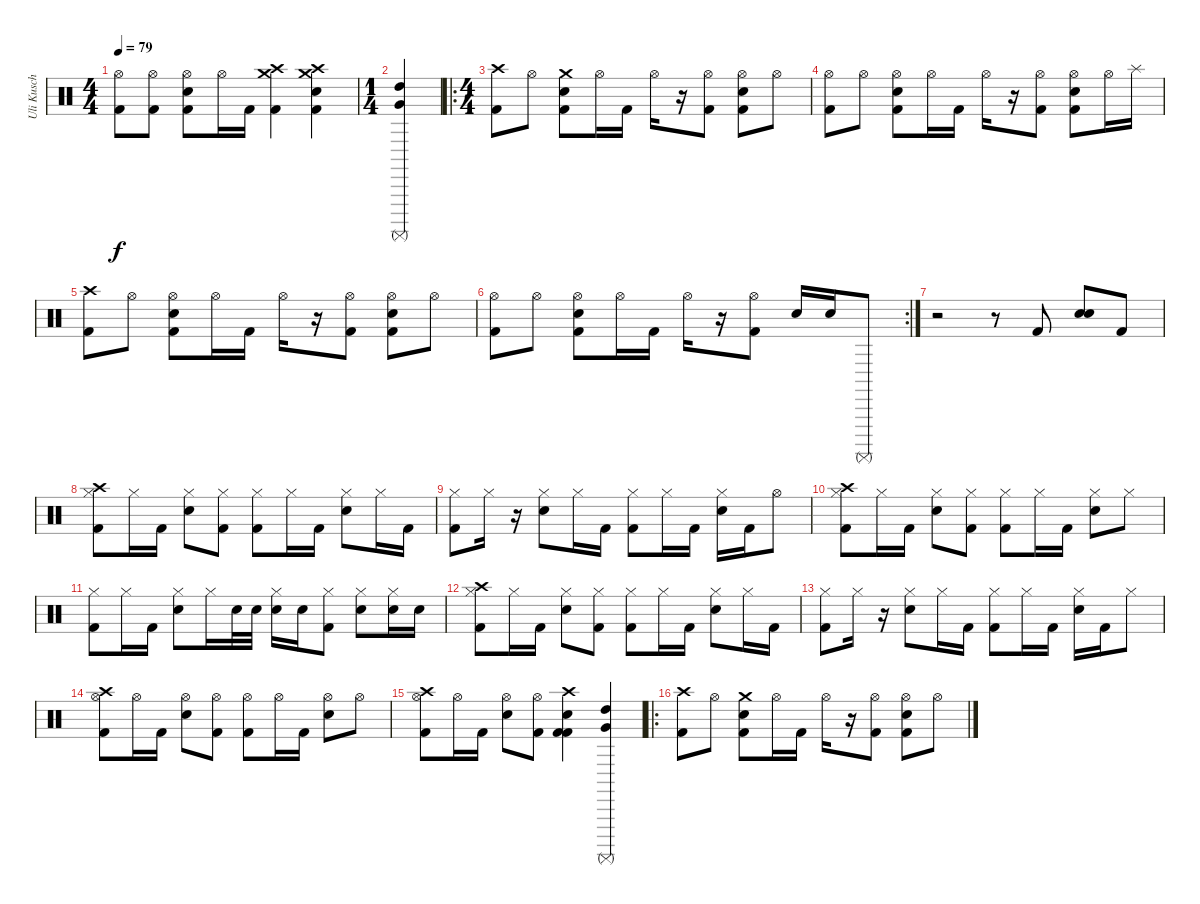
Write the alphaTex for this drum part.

\track ("Uli Kusch" "Uli Kusch") {instrument percussion}
\staff {score}
\articulation defaults
\ts (4 4)
\tempo 79
\clef neutral
\ks c
("Kick (hit) 2" "Hi-Hat (open)").8{dy f} ("Hi-Hat (open)" "Kick (hit) 2").8 ("Snare (hit) 2" "Kick (hit) 2" "Hi-Hat (open)").8 "Hi-Hat (open)".16 "Kick (hit) 2".16 ("Crash high (hit)" "Kick (hit) 2" "Crash medium (hit)").4 ("Crash medium (hit)" "Crash high (hit)" "Kick (hit) 2" "Snare (hit) 2").4 |
\ts (1 4)
("Surdo (mute)" "Very Low Tom (hit)" "High Tom (hit)").4 |
\ro
\ts (4 4)
("Kick (hit) 2" "Crash high (hit)").8 "Hi-Hat (open)".8 ("Snare (hit) 2" "Kick (hit) 2" "Crash medium (hit)").8 "Hi-Hat (open)".16 "Kick (hit) 2".16 "Hi-Hat (open)".16 r.16 ("Kick (hit) 2" "Hi-Hat (open)").8 ("Kick (hit) 2" "Hi-Hat (open)" "Snare (hit) 2").8 "Hi-Hat (open)".8 |
("Kick (hit) 2" "Hi-Hat (open)").8 "Hi-Hat (open)".8 ("Snare (hit) 2" "Kick (hit) 2" "Hi-Hat (open)").8 "Hi-Hat (open)".16 "Kick (hit) 2".16 "Hi-Hat (open)".16 r.16 ("Kick (hit) 2" "Hi-Hat (open)").8 ("Kick (hit) 2" "Snare (hit) 2" "Hi-Hat (open)").8 "Hi-Hat (open)".16 "Splash (hit)".16 |
("Kick (hit) 2" "Crash high (hit)").8 "Hi-Hat (open)".8 ("Snare (hit) 2" "Kick (hit) 2" "Hi-Hat (open)").8 "Hi-Hat (open)".16 "Kick (hit) 2".16 "Hi-Hat (open)".16 r.16 ("Kick (hit) 2" "Hi-Hat (open)").8 ("Kick (hit) 2" "Snare (hit) 2" "Hi-Hat (open)").8 "Hi-Hat (open)".8 |
\rc 2
("Kick (hit) 2" "Hi-Hat (open)").8 "Hi-Hat (open)".8 ("Snare (hit) 2" "Kick (hit) 2" "Hi-Hat (open)").8 "Hi-Hat (open)".16 "Kick (hit) 2".16 "Hi-Hat (open)".16 r.16 ("Kick (hit) 2" "Hi-Hat (open)").8 "Snare (hit) 2".16 "Snare (hit) 2".16 "Surdo (mute)".8 |
r.2 r.8 "Kick (hit) 2".8 ("Snare (hit) 2" "Snare (hit) 2").8{bd 60} "Kick (hit) 2".8 |
("Crash high (hit)" "Hi-Hat (closed)" "Kick (hit) 2").8 "Hi-Hat (closed)".16 "Kick (hit) 2".16 ("Snare (hit) 2" "Hi-Hat (closed)").8 ("Kick (hit) 2" "Hi-Hat (closed)").8 ("Hi-Hat (closed)" "Kick (hit) 2").8 "Hi-Hat (closed)".16 "Kick (hit) 2".16 ("Snare (hit) 2" "Hi-Hat (closed)").8 "Hi-Hat (closed)".16 "Kick (hit) 2".16 |
("Hi-Hat (closed)" "Kick (hit) 2").8 "Hi-Hat (closed)".16 r.16 ("Snare (hit) 2" "Hi-Hat (closed)").8 "Hi-Hat (closed)".16 "Kick (hit) 2".16 ("Hi-Hat (closed)" "Kick (hit) 2").8 "Hi-Hat (closed)".16 "Kick (hit) 2".16 ("Snare (hit) 2" "Hi-Hat (closed)").16 "Kick (hit) 2".16 "Hi-Hat (open)".8 |
("Crash high (hit)" "Hi-Hat (closed)" "Kick (hit) 2").8 "Hi-Hat (closed)".16 "Kick (hit) 2".16 ("Snare (hit) 2" "Hi-Hat (closed)").8 ("Kick (hit) 2" "Hi-Hat (closed)").8 ("Hi-Hat (closed)" "Kick (hit) 2").8 "Hi-Hat (closed)".16 "Kick (hit) 2".16 ("Snare (hit) 2" "Hi-Hat (closed)").8 "Hi-Hat (closed)".8 |
("Hi-Hat (closed)" "Kick (hit) 2").8 "Hi-Hat (closed)".16 "Kick (hit) 2".16 ("Snare (hit) 2" "Hi-Hat (closed)").8 "Hi-Hat (closed)".16 "Snare (hit) 2".32 "Snare (hit) 2".32 ("Snare (hit) 2" "Hi-Hat (closed)").16 "Snare (hit) 2".16 ("Kick (hit) 2" "Hi-Hat (closed)").8 ("Snare (hit) 2" "Hi-Hat (closed)").8 ("Snare (hit) 2" "Hi-Hat (closed)").16 "Snare (hit) 2".16 |
("Crash high (hit)" "Hi-Hat (closed)" "Kick (hit) 2").8 "Hi-Hat (closed)".16 "Kick (hit) 2".16 ("Snare (hit) 2" "Hi-Hat (closed)").8 ("Kick (hit) 2" "Hi-Hat (closed)").8 ("Hi-Hat (closed)" "Kick (hit) 2").8 "Hi-Hat (closed)".16 "Kick (hit) 2".16 ("Snare (hit) 2" "Hi-Hat (closed)").8 "Hi-Hat (closed)".16 "Kick (hit) 2".16 |
("Hi-Hat (closed)" "Kick (hit) 2").8 "Hi-Hat (closed)".16 r.16 ("Snare (hit) 2" "Hi-Hat (closed)").8 "Hi-Hat (closed)".16 "Kick (hit) 2".16 ("Hi-Hat (closed)" "Kick (hit) 2").8 "Hi-Hat (closed)".16 "Kick (hit) 2".16 ("Snare (hit) 2" "Hi-Hat (closed)").16 "Kick (hit) 2".16 "Hi-Hat (closed)".8 |
("Crash high (hit)" "Hi-Hat (open)" "Kick (hit) 2").8 "Hi-Hat (open)".16 "Kick (hit) 2".16 ("Snare (hit) 2" "Hi-Hat (open)").8 ("Kick (hit) 2" "Hi-Hat (open)").8 ("Hi-Hat (open)" "Kick (hit) 2").8 "Hi-Hat (open)".16 "Kick (hit) 2".16 ("Snare (hit) 2" "Hi-Hat (open)").8 "Hi-Hat (open)".8 |
("Crash high (hit)" "Hi-Hat (open)" "Kick (hit) 2").8 "Hi-Hat (open)".16 "Kick (hit) 2".16 ("Snare (hit) 2" "Hi-Hat (open)").8 ("Kick (hit) 2" "Hi-Hat (open)").8 ("Crash high (hit)" "Kick (hit) 2" "Snare (hit) 2" "Kick (hit) 2").4 ("Surdo (mute)" "Very Low Tom (hit)" "High Tom (hit)").4 |
\ro
("Kick (hit) 2" "Crash high (hit)").8 "Hi-Hat (open)".8 ("Snare (hit) 2" "Kick (hit) 2" "Crash medium (hit)").8 "Hi-Hat (open)".16 "Kick (hit) 2".16 "Hi-Hat (open)".16 r.16 ("Kick (hit) 2" "Hi-Hat (open)").8 ("Kick (hit) 2" "Hi-Hat (open)" "Snare (hit) 2").8 "Hi-Hat (open)".8
